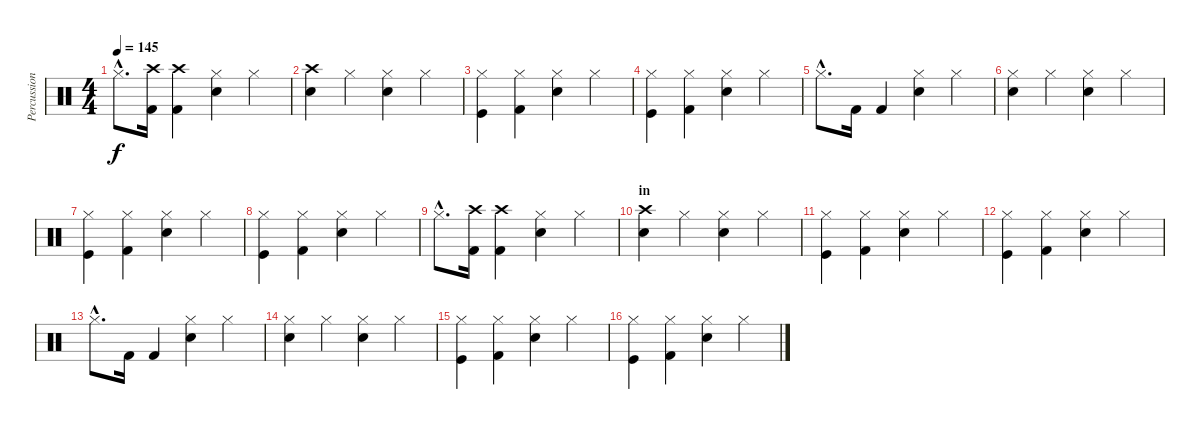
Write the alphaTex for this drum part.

\track ("Percussion" "Percussion") {instrument percussion}
\staff {score}
\articulation defaults
\ts (4 4)
\tempo 145
\clef neutral
\ks c "Hi-Hat (closed)"{hac}.8{d dy f}
("Crash high (hit)" "Kick (hit) 2").16 ("Crash high (hit)" "Kick (hit) 2").4 ("Hi-Hat (closed)" "Snare (hit) 2").4 "Hi-Hat (closed)".4 |
("Crash high (hit)" "Snare (hit) 2").4 "Hi-Hat (closed)".4 ("Hi-Hat (closed)" "Snare (hit) 2").4 "Hi-Hat (closed)".4 |
("Hi-Hat (closed)" "Kick (hit)").4 ("Hi-Hat (closed)" "Kick (hit) 2").4 ("Hi-Hat (closed)" "Snare (hit) 2").4 "Hi-Hat (closed)".4 |
("Hi-Hat (closed)" "Kick (hit)").4 ("Hi-Hat (closed)" "Kick (hit) 2").4 ("Hi-Hat (closed)" "Snare (hit) 2").4 "Hi-Hat (closed)".4 |
"Hi-Hat (closed)"{hac}.8{d} "Kick (hit) 2".16 "Kick (hit) 2".4 ("Hi-Hat (closed)" "Snare (hit) 2").4 "Hi-Hat (closed)".4 |
("Hi-Hat (closed)" "Snare (hit) 2").4 "Hi-Hat (closed)".4 ("Hi-Hat (closed)" "Snare (hit) 2").4 "Hi-Hat (closed)".4 |
("Hi-Hat (closed)" "Kick (hit)").4 ("Hi-Hat (closed)" "Kick (hit) 2").4 ("Hi-Hat (closed)" "Snare (hit) 2").4 "Hi-Hat (closed)".4 |
("Hi-Hat (closed)" "Kick (hit)").4 ("Hi-Hat (closed)" "Kick (hit) 2").4 ("Hi-Hat (closed)" "Snare (hit) 2").4 "Hi-Hat (closed)".4 |
"Hi-Hat (closed)"{hac}.8{d} ("Crash high (hit)" "Kick (hit) 2").16 ("Crash high (hit)" "Kick (hit) 2").4 ("Hi-Hat (closed)" "Snare (hit) 2").4 "Hi-Hat (closed)".4 |
\section ("" "in")
("Crash high (hit)" "Snare (hit) 2").4 "Hi-Hat (closed)".4 ("Hi-Hat (closed)" "Snare (hit) 2").4 "Hi-Hat (closed)".4 |
("Hi-Hat (closed)" "Kick (hit)").4 ("Hi-Hat (closed)" "Kick (hit) 2").4 ("Hi-Hat (closed)" "Snare (hit) 2").4 "Hi-Hat (closed)".4 |
("Hi-Hat (closed)" "Kick (hit)").4 ("Hi-Hat (closed)" "Kick (hit) 2").4 ("Hi-Hat (closed)" "Snare (hit) 2").4 "Hi-Hat (closed)".4 |
"Hi-Hat (closed)"{hac}.8{d} "Kick (hit) 2".16 "Kick (hit) 2".4 ("Hi-Hat (closed)" "Snare (hit) 2").4 "Hi-Hat (closed)".4 |
("Hi-Hat (closed)" "Snare (hit) 2").4 "Hi-Hat (closed)".4 ("Hi-Hat (closed)" "Snare (hit) 2").4 "Hi-Hat (closed)".4 |
("Hi-Hat (closed)" "Kick (hit)").4 ("Hi-Hat (closed)" "Kick (hit) 2").4 ("Hi-Hat (closed)" "Snare (hit) 2").4 "Hi-Hat (closed)".4 |
("Hi-Hat (closed)" "Kick (hit)").4 ("Hi-Hat (closed)" "Kick (hit) 2").4 ("Hi-Hat (closed)" "Snare (hit) 2").4 "Hi-Hat (closed)".4
